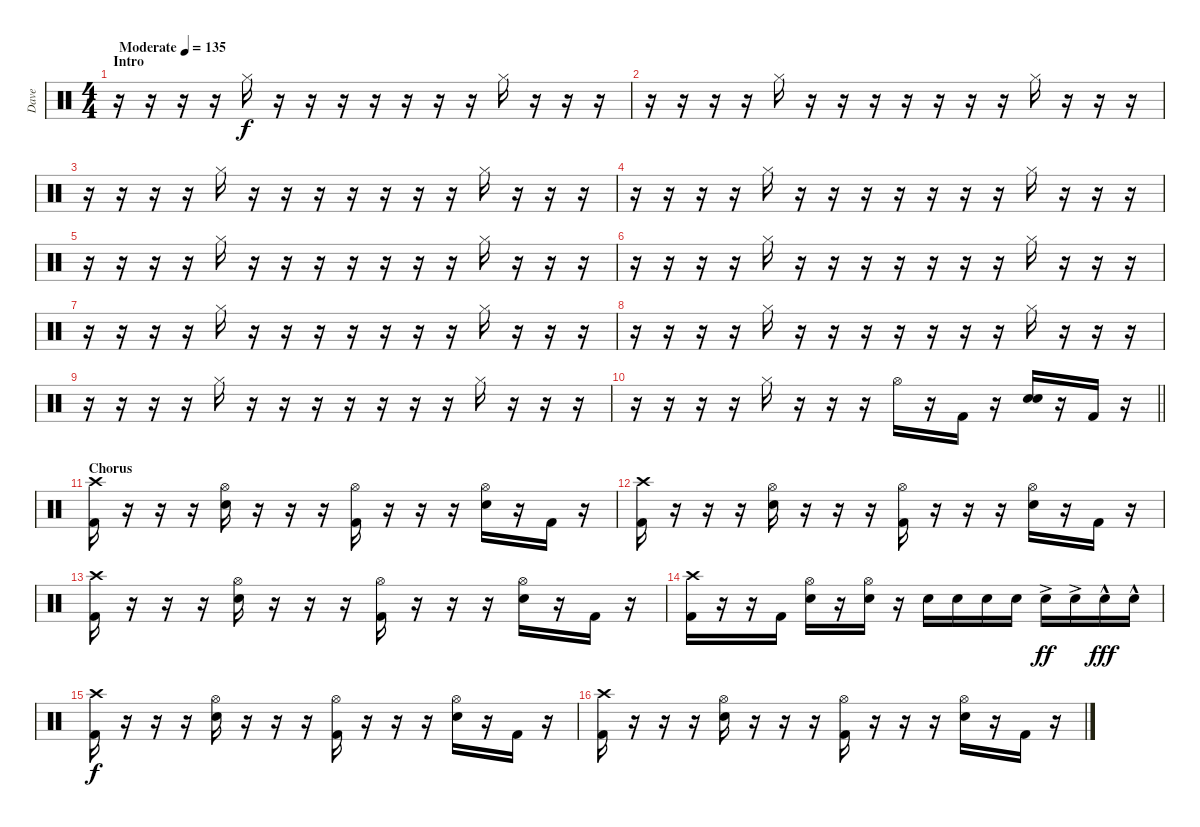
\track ("Dave" "Dave") {instrument percussion}
\staff {score}
\articulation defaults
\ts (4 4)
\section ("" "Intro")
\tempo (135 "Moderate")
\clef neutral
\ks c
r.16{dy f} r.16 r.16 r.16 "Hi-Hat (closed)".16 r.16 r.16 r.16 r.16 r.16 r.16 r.16 "Hi-Hat (closed)".16 r.16 r.16 r.16 |
r.16 r.16 r.16 r.16 "Hi-Hat (closed)".16 r.16 r.16 r.16 r.16 r.16 r.16 r.16 "Hi-Hat (closed)".16 r.16 r.16 r.16 |
r.16 r.16 r.16 r.16 "Hi-Hat (closed)".16 r.16 r.16 r.16 r.16 r.16 r.16 r.16 "Hi-Hat (closed)".16 r.16 r.16 r.16 |
r.16 r.16 r.16 r.16 "Hi-Hat (closed)".16 r.16 r.16 r.16 r.16 r.16 r.16 r.16 "Hi-Hat (closed)".16 r.16 r.16 r.16 |
r.16 r.16 r.16 r.16 "Hi-Hat (closed)".16 r.16 r.16 r.16 r.16 r.16 r.16 r.16 "Hi-Hat (closed)".16 r.16 r.16 r.16 |
r.16 r.16 r.16 r.16 "Hi-Hat (closed)".16 r.16 r.16 r.16 r.16 r.16 r.16 r.16 "Hi-Hat (closed)".16 r.16 r.16 r.16 |
r.16 r.16 r.16 r.16 "Hi-Hat (closed)".16 r.16 r.16 r.16 r.16 r.16 r.16 r.16 "Hi-Hat (closed)".16 r.16 r.16 r.16 |
r.16 r.16 r.16 r.16 "Hi-Hat (closed)".16 r.16 r.16 r.16 r.16 r.16 r.16 r.16 "Hi-Hat (closed)".16 r.16 r.16 r.16 |
r.16 r.16 r.16 r.16 "Hi-Hat (closed)".16 r.16 r.16 r.16 r.16 r.16 r.16 r.16 "Hi-Hat (closed)".16 r.16 r.16 r.16 |
\barLineRight lightlight
r.16 r.16 r.16 r.16 "Hi-Hat (closed)".16 r.16 r.16 r.16 "Hi-Hat (open)".16 r.16 "Kick (hit) 2".16 r.16 ("Electric Snare (hit)" "Electric Snare (hit)").16 r.16 "Kick (hit) 2".16 r.16 |
\section ("" "Chorus")
("Crash high (hit)" "Kick (hit) 2").16 r.16 r.16 r.16 ("Hi-Hat (open)" "Electric Snare (hit)").16 r.16 r.16 r.16 ("Hi-Hat (open)" "Kick (hit) 2").16 r.16 r.16 r.16 ("Hi-Hat (open)" "Electric Snare (hit)").16 r.16 "Kick (hit) 2".16 r.16 |
("Crash high (hit)" "Kick (hit) 2").16 r.16 r.16 r.16 ("Hi-Hat (open)" "Electric Snare (hit)").16 r.16 r.16 r.16 ("Hi-Hat (open)" "Kick (hit) 2").16 r.16 r.16 r.16 ("Hi-Hat (open)" "Electric Snare (hit)").16 r.16 "Kick (hit) 2".16 r.16 |
("Crash high (hit)" "Kick (hit) 2").16 r.16 r.16 r.16 ("Hi-Hat (open)" "Electric Snare (hit)").16 r.16 r.16 r.16 ("Hi-Hat (open)" "Kick (hit) 2").16 r.16 r.16 r.16 ("Hi-Hat (open)" "Electric Snare (hit)").16 r.16 "Kick (hit) 2".16 r.16 |
("Crash high (hit)" "Kick (hit) 2").16 r.16 r.16 "Kick (hit) 2".16 ("Hi-Hat (open)" "Electric Snare (hit)").16 r.16 ("Hi-Hat (open)" "Electric Snare (hit)").16 r.16 "Electric Snare (hit)".16 "Electric Snare (hit)".16 "Electric Snare (hit)".16 "Electric Snare (hit)".16 "Electric Snare (hit)"{ac}.16{dy ff} "Electric Snare (hit)"{ac}.16 "Electric Snare (hit)"{hac}.16{dy fff} "Electric Snare (hit)"{hac}.16 |
("Crash high (hit)" "Kick (hit) 2").16{dy f} r.16 r.16 r.16 ("Hi-Hat (open)" "Electric Snare (hit)").16 r.16 r.16 r.16 ("Hi-Hat (open)" "Kick (hit) 2").16 r.16 r.16 r.16 ("Hi-Hat (open)" "Electric Snare (hit)").16 r.16 "Kick (hit) 2".16 r.16 |
("Crash high (hit)" "Kick (hit) 2").16 r.16 r.16 r.16 ("Hi-Hat (open)" "Electric Snare (hit)").16 r.16 r.16 r.16 ("Hi-Hat (open)" "Kick (hit) 2").16 r.16 r.16 r.16 ("Hi-Hat (open)" "Electric Snare (hit)").16 r.16 "Kick (hit) 2".16 r.16
